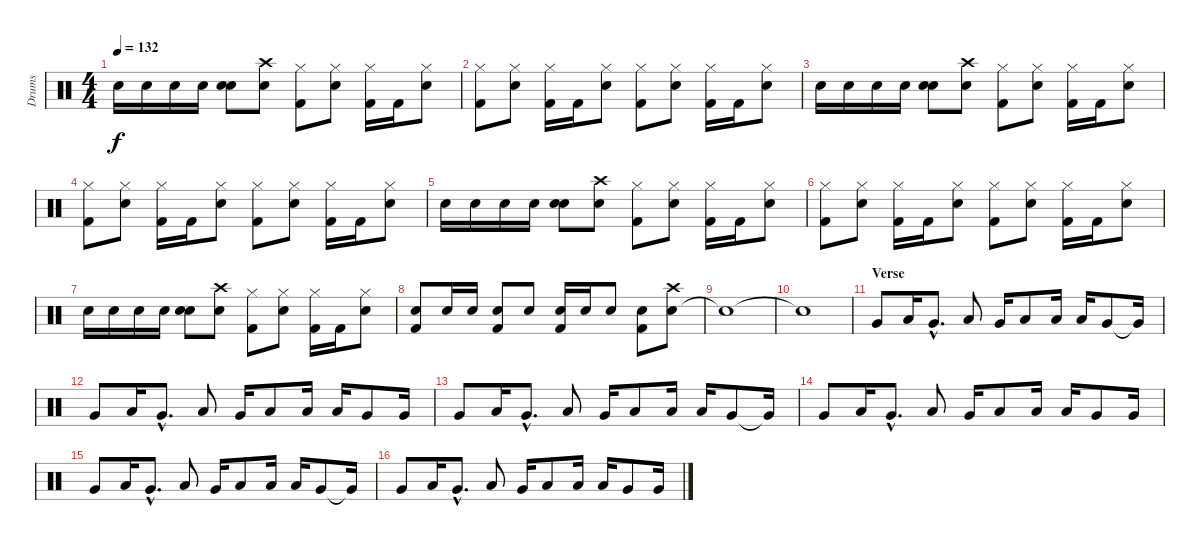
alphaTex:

\track ("Drums" "Drums") {instrument percussion}
\staff {score}
\articulation defaults
\ts (4 4)
\tempo 132
\clef neutral
\ks c "Snare (hit) 2".16{dy f} "Snare (hit) 2".16 "Snare (hit) 2".16 "Snare (hit) 2".16
("Snare (hit) 2" "Snare (hit) 2").8 ("Snare (hit) 2" "Crash high (hit)").8 ("Kick (hit) 2" "Hi-Hat (closed)").8 ("Snare (hit) 2" "Hi-Hat (closed)").8 ("Kick (hit) 2" "Hi-Hat (closed)").16 "Kick (hit) 2".16 ("Snare (hit) 2" "Hi-Hat (closed)").8 |
("Kick (hit) 2" "Hi-Hat (closed)").8 ("Snare (hit) 2" "Hi-Hat (closed)").8 ("Kick (hit) 2" "Hi-Hat (closed)").16 "Kick (hit) 2".16 ("Snare (hit) 2" "Hi-Hat (closed)").8 ("Kick (hit) 2" "Hi-Hat (closed)").8 ("Snare (hit) 2" "Hi-Hat (closed)").8 ("Kick (hit) 2" "Hi-Hat (closed)").16 "Kick (hit) 2".16 ("Snare (hit) 2" "Hi-Hat (closed)").8 |
"Snare (hit) 2".16 "Snare (hit) 2".16 "Snare (hit) 2".16 "Snare (hit) 2".16 ("Snare (hit) 2" "Snare (hit) 2").8 ("Snare (hit) 2" "Crash high (hit)").8 ("Kick (hit) 2" "Hi-Hat (closed)").8 ("Snare (hit) 2" "Hi-Hat (closed)").8 ("Kick (hit) 2" "Hi-Hat (closed)").16 "Kick (hit) 2".16 ("Snare (hit) 2" "Hi-Hat (closed)").8 |
("Kick (hit) 2" "Hi-Hat (closed)").8 ("Snare (hit) 2" "Hi-Hat (closed)").8 ("Kick (hit) 2" "Hi-Hat (closed)").16 "Kick (hit) 2".16 ("Snare (hit) 2" "Hi-Hat (closed)").8 ("Kick (hit) 2" "Hi-Hat (closed)").8 ("Snare (hit) 2" "Hi-Hat (closed)").8 ("Kick (hit) 2" "Hi-Hat (closed)").16 "Kick (hit) 2".16 ("Snare (hit) 2" "Hi-Hat (closed)").8 |
"Snare (hit) 2".16 "Snare (hit) 2".16 "Snare (hit) 2".16 "Snare (hit) 2".16 ("Snare (hit) 2" "Snare (hit) 2").8 ("Snare (hit) 2" "Crash high (hit)").8 ("Kick (hit) 2" "Hi-Hat (closed)").8 ("Snare (hit) 2" "Hi-Hat (closed)").8 ("Kick (hit) 2" "Hi-Hat (closed)").16 "Kick (hit) 2".16 ("Snare (hit) 2" "Hi-Hat (closed)").8 |
("Kick (hit) 2" "Hi-Hat (closed)").8 ("Snare (hit) 2" "Hi-Hat (closed)").8 ("Kick (hit) 2" "Hi-Hat (closed)").16 "Kick (hit) 2".16 ("Snare (hit) 2" "Hi-Hat (closed)").8 ("Kick (hit) 2" "Hi-Hat (closed)").8 ("Snare (hit) 2" "Hi-Hat (closed)").8 ("Kick (hit) 2" "Hi-Hat (closed)").16 "Kick (hit) 2".16 ("Snare (hit) 2" "Hi-Hat (closed)").8 |
"Snare (hit) 2".16 "Snare (hit) 2".16 "Snare (hit) 2".16 "Snare (hit) 2".16 ("Snare (hit) 2" "Snare (hit) 2").8 ("Snare (hit) 2" "Crash high (hit)").8 ("Kick (hit) 2" "Hi-Hat (closed)").8 ("Snare (hit) 2" "Hi-Hat (closed)").8 ("Kick (hit) 2" "Hi-Hat (closed)").16 "Kick (hit) 2".16 ("Snare (hit) 2" "Hi-Hat (closed)").8 |
("Snare (hit) 2" "Kick (hit) 2").8 "Snare (hit) 2".16 "Snare (hit) 2".16 ("Snare (hit) 2" "Kick (hit) 2").8 "Snare (hit) 2".8 ("Snare (hit) 2" "Kick (hit) 2").16 "Snare (hit) 2".16 "Snare (hit) 2".8 ("Snare (hit) 2" "Kick (hit) 2").8 ("Snare (hit) 2" "Crash high (hit)").8 |
"Snare (hit)"{t}.1 |
"Snare (hit)"{t}.1 |
\section ("" "Verse")
"Very Low Tom (hit)".8 "Low Floor Tom (hit)".16 "Very Low Tom (hit)"{hac}.8{d} "Low Floor Tom (hit)".8 "Very Low Tom (hit)".16 "Low Floor Tom (hit)".8 "Low Floor Tom (hit)".16 "Low Floor Tom (hit)".16 "Very Low Tom (hit)".8 "Very Low Tom (hit)"{t}.16 |
"Very Low Tom (hit)".8 "Low Floor Tom (hit)".16 "Very Low Tom (hit)"{hac}.8{d} "Low Floor Tom (hit)".8 "Very Low Tom (hit)".16 "Low Floor Tom (hit)".8 "Low Floor Tom (hit)".16 "Low Floor Tom (hit)".16 "Very Low Tom (hit)".8 "Very Low Tom (hit)".16 |
"Very Low Tom (hit)".8 "Low Floor Tom (hit)".16 "Very Low Tom (hit)"{hac}.8{d} "Low Floor Tom (hit)".8 "Very Low Tom (hit)".16 "Low Floor Tom (hit)".8 "Low Floor Tom (hit)".16 "Low Floor Tom (hit)".16 "Very Low Tom (hit)".8 "Very Low Tom (hit)"{t}.16 |
"Very Low Tom (hit)".8 "Low Floor Tom (hit)".16 "Very Low Tom (hit)"{hac}.8{d} "Low Floor Tom (hit)".8 "Very Low Tom (hit)".16 "Low Floor Tom (hit)".8 "Low Floor Tom (hit)".16 "Low Floor Tom (hit)".16 "Very Low Tom (hit)".8 "Very Low Tom (hit)".16 |
"Very Low Tom (hit)".8 "Low Floor Tom (hit)".16 "Very Low Tom (hit)"{hac}.8{d} "Low Floor Tom (hit)".8 "Very Low Tom (hit)".16 "Low Floor Tom (hit)".8 "Low Floor Tom (hit)".16 "Low Floor Tom (hit)".16 "Very Low Tom (hit)".8 "Very Low Tom (hit)"{t}.16 |
"Very Low Tom (hit)".8 "Low Floor Tom (hit)".16 "Very Low Tom (hit)"{hac}.8{d} "Low Floor Tom (hit)".8 "Very Low Tom (hit)".16 "Low Floor Tom (hit)".8 "Low Floor Tom (hit)".16 "Low Floor Tom (hit)".16 "Very Low Tom (hit)".8 "Very Low Tom (hit)".16
